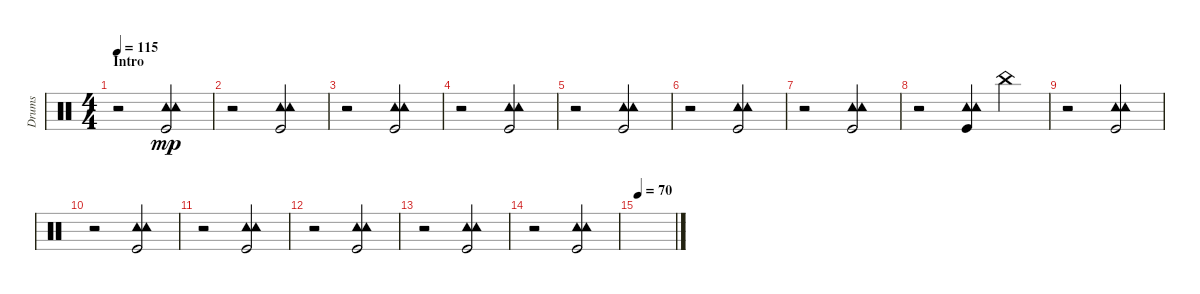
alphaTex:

\track ("Drums" "Drums") {instrument percussion}
\staff {score}
\articulation defaults
\ts (4 4)
\section ("" "Intro")
\tempo 115
\clef neutral
\ks c
r.2{dy mp} ("Tambourine (hit)" "Tambourine (hit)" "Kick (hit)").2 |
r.2 ("Tambourine (hit)" "Tambourine (hit)" "Kick (hit)").2 |
r.2 ("Tambourine (hit)" "Tambourine (hit)" "Kick (hit)").2 |
r.2 ("Tambourine (hit)" "Tambourine (hit)" "Kick (hit)").2 |
r.2 ("Tambourine (hit)" "Tambourine (hit)" "Kick (hit)").2 |
r.2 ("Tambourine (hit)" "Tambourine (hit)" "Kick (hit)").2 |
r.2 ("Tambourine (hit)" "Tambourine (hit)" "Kick (hit)").2 |
r.2 ("Tambourine (hit)" "Tambourine (hit)" "Kick (hit)").4 "China (hit)".4 |
r.2 ("Tambourine (hit)" "Tambourine (hit)" "Kick (hit)").2 |
r.2 ("Tambourine (hit)" "Tambourine (hit)" "Kick (hit)").2 |
r.2 ("Tambourine (hit)" "Tambourine (hit)" "Kick (hit)").2 |
r.2 ("Tambourine (hit)" "Tambourine (hit)" "Kick (hit)").2 |
r.2 ("Tambourine (hit)" "Tambourine (hit)" "Kick (hit)").2 |
r.2 ("Tambourine (hit)" "Tambourine (hit)" "Kick (hit)").2 |
\tempo 70
